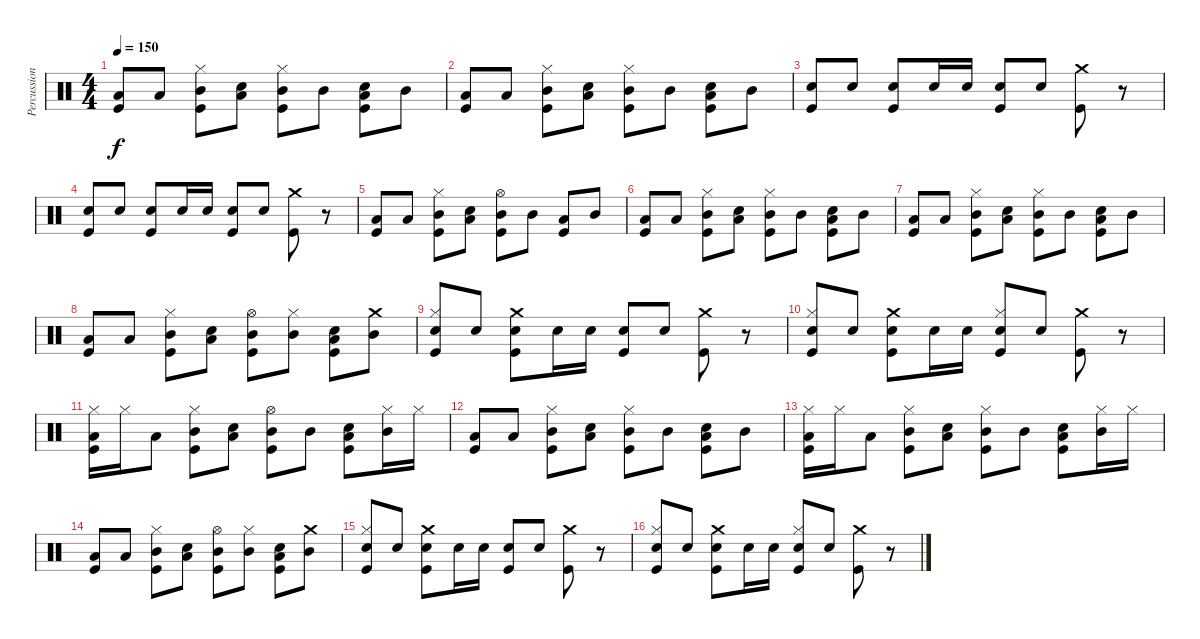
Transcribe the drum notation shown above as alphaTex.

\track ("Percussions" "Percussion") {instrument percussion}
\staff {score}
\articulation defaults
\ts (4 4)
\tempo 150
\clef neutral
\ks c
("Low Tom (hit)" "Kick (hit)").8{dy f} "Low Tom (hit)".8 ("Mid Tom (hit)" "Hi-Hat (closed)" "Kick (hit)").8 ("Low Tom (hit)" "Electric Snare (hit)").8 ("Mid Tom (hit)" "Hi-Hat (closed)" "Kick (hit)").8 "Mid Tom (hit)".8 ("Low Tom (hit)" "Electric Snare (hit)" "Kick (hit)").8 "Mid Tom (hit)".8 |
("Low Tom (hit)" "Kick (hit)").8 "Low Tom (hit)".8 ("Mid Tom (hit)" "Hi-Hat (closed)" "Kick (hit)").8 ("Low Tom (hit)" "Electric Snare (hit)").8 ("Mid Tom (hit)" "Hi-Hat (closed)" "Kick (hit)").8 "Mid Tom (hit)".8 ("Low Tom (hit)" "Electric Snare (hit)" "Kick (hit)").8 "Mid Tom (hit)".8 |
("Electric Snare (hit)" "Kick (hit)").8 "Electric Snare (hit)".8 ("Electric Snare (hit)" "Kick (hit)").8 "Electric Snare (hit)".16 "Electric Snare (hit)".16 ("Electric Snare (hit)" "Kick (hit)").8 "Electric Snare (hit)".8 ("Crash medium (hit)" "Kick (hit)").8 r.8 |
("Electric Snare (hit)" "Kick (hit)").8 "Electric Snare (hit)".8 ("Electric Snare (hit)" "Kick (hit)").8 "Electric Snare (hit)".16 "Electric Snare (hit)".16 ("Electric Snare (hit)" "Kick (hit)").8 "Electric Snare (hit)".8 ("Crash medium (hit)" "Kick (hit)").8 r.8 |
("Low Tom (hit)" "Kick (hit)").8 "Low Tom (hit)".8 ("Mid Tom (hit)" "Hi-Hat (closed)" "Kick (hit)").8 ("Low Tom (hit)" "Electric Snare (hit)").8 ("Mid Tom (hit)" "Hi-Hat (open)" "Kick (hit)").8 "Mid Tom (hit)".8 ("Low Tom (hit)" "Kick (hit)").8 "Mid Tom (hit)".8 |
("Low Tom (hit)" "Kick (hit)").8 "Low Tom (hit)".8 ("Mid Tom (hit)" "Hi-Hat (closed)" "Kick (hit)").8 ("Low Tom (hit)" "Electric Snare (hit)").8 ("Mid Tom (hit)" "Hi-Hat (closed)" "Kick (hit)").8 "Mid Tom (hit)".8 ("Low Tom (hit)" "Electric Snare (hit)" "Kick (hit)").8 "Mid Tom (hit)".8 |
("Low Tom (hit)" "Kick (hit)").8 "Low Tom (hit)".8 ("Mid Tom (hit)" "Hi-Hat (closed)" "Kick (hit)").8 ("Low Tom (hit)" "Electric Snare (hit)").8 ("Mid Tom (hit)" "Hi-Hat (closed)" "Kick (hit)").8 "Mid Tom (hit)".8 ("Low Tom (hit)" "Electric Snare (hit)" "Kick (hit)").8 "Mid Tom (hit)".8 |
("Low Tom (hit)" "Kick (hit)").8 "Low Tom (hit)".8 ("Mid Tom (hit)" "Hi-Hat (closed)" "Kick (hit)").8 ("Low Tom (hit)" "Electric Snare (hit)").8 ("Mid Tom (hit)" "Hi-Hat (open)" "Kick (hit)").8 ("Mid Tom (hit)" "Hi-Hat (closed)").8 ("Low Tom (hit)" "Electric Snare (hit)" "Kick (hit)").8 ("Mid Tom (hit)" "Crash medium (hit)").8 |
("Electric Snare (hit)" "Hi-Hat (closed)" "Kick (hit)").8 "Electric Snare (hit)".8 ("Electric Snare (hit)" "Crash medium (hit)" "Kick (hit)").8 "Electric Snare (hit)".16 "Electric Snare (hit)".16 ("Electric Snare (hit)" "Kick (hit)").8 "Electric Snare (hit)".8 ("Crash medium (hit)" "Kick (hit)").8 r.8 |
("Electric Snare (hit)" "Hi-Hat (closed)" "Kick (hit)").8 "Electric Snare (hit)".8 ("Electric Snare (hit)" "Crash medium (hit)" "Kick (hit)").8 "Electric Snare (hit)".16 "Electric Snare (hit)".16 ("Electric Snare (hit)" "Hi-Hat (closed)" "Kick (hit)").8 "Electric Snare (hit)".8 ("Crash medium (hit)" "Kick (hit)").8 r.8 |
("Low Tom (hit)" "Hi-Hat (closed)" "Kick (hit)").16 "Hi-Hat (closed)".16 "Low Tom (hit)".8 ("Mid Tom (hit)" "Hi-Hat (closed)" "Kick (hit)").8 ("Low Tom (hit)" "Electric Snare (hit)").8 ("Mid Tom (hit)" "Hi-Hat (open)" "Kick (hit)").8 "Mid Tom (hit)".8 ("Low Tom (hit)" "Electric Snare (hit)" "Kick (hit)").8 ("Mid Tom (hit)" "Hi-Hat (closed)").16 "Hi-Hat (closed)".16 |
("Low Tom (hit)" "Kick (hit)").8 "Low Tom (hit)".8 ("Mid Tom (hit)" "Hi-Hat (closed)" "Kick (hit)").8 ("Low Tom (hit)" "Electric Snare (hit)").8 ("Mid Tom (hit)" "Hi-Hat (closed)" "Kick (hit)").8 "Mid Tom (hit)".8 ("Low Tom (hit)" "Electric Snare (hit)" "Kick (hit)").8 "Mid Tom (hit)".8 |
("Low Tom (hit)" "Hi-Hat (closed)" "Kick (hit)").16 "Hi-Hat (closed)".16 "Low Tom (hit)".8 ("Mid Tom (hit)" "Hi-Hat (closed)" "Kick (hit)").8 ("Low Tom (hit)" "Electric Snare (hit)").8 ("Mid Tom (hit)" "Hi-Hat (closed)" "Kick (hit)").8 "Mid Tom (hit)".8 ("Low Tom (hit)" "Electric Snare (hit)" "Kick (hit)").8 ("Mid Tom (hit)" "Hi-Hat (closed)").16 "Hi-Hat (closed)".16 |
("Low Tom (hit)" "Kick (hit)").8 "Low Tom (hit)".8 ("Mid Tom (hit)" "Hi-Hat (closed)" "Kick (hit)").8 ("Low Tom (hit)" "Electric Snare (hit)").8 ("Mid Tom (hit)" "Hi-Hat (open)" "Kick (hit)").8 ("Mid Tom (hit)" "Hi-Hat (closed)").8 ("Low Tom (hit)" "Electric Snare (hit)" "Kick (hit)").8 ("Mid Tom (hit)" "Crash medium (hit)").8 |
("Electric Snare (hit)" "Hi-Hat (closed)" "Kick (hit)").8 "Electric Snare (hit)".8 ("Electric Snare (hit)" "Crash medium (hit)" "Kick (hit)").8 "Electric Snare (hit)".16 "Electric Snare (hit)".16 ("Electric Snare (hit)" "Kick (hit)").8 "Electric Snare (hit)".8 ("Crash medium (hit)" "Kick (hit)").8 r.8 |
("Electric Snare (hit)" "Hi-Hat (closed)" "Kick (hit)").8 "Electric Snare (hit)".8 ("Electric Snare (hit)" "Crash medium (hit)" "Kick (hit)").8 "Electric Snare (hit)".16 "Electric Snare (hit)".16 ("Electric Snare (hit)" "Hi-Hat (closed)" "Kick (hit)").8 "Electric Snare (hit)".8 ("Crash medium (hit)" "Kick (hit)").8 r.8
